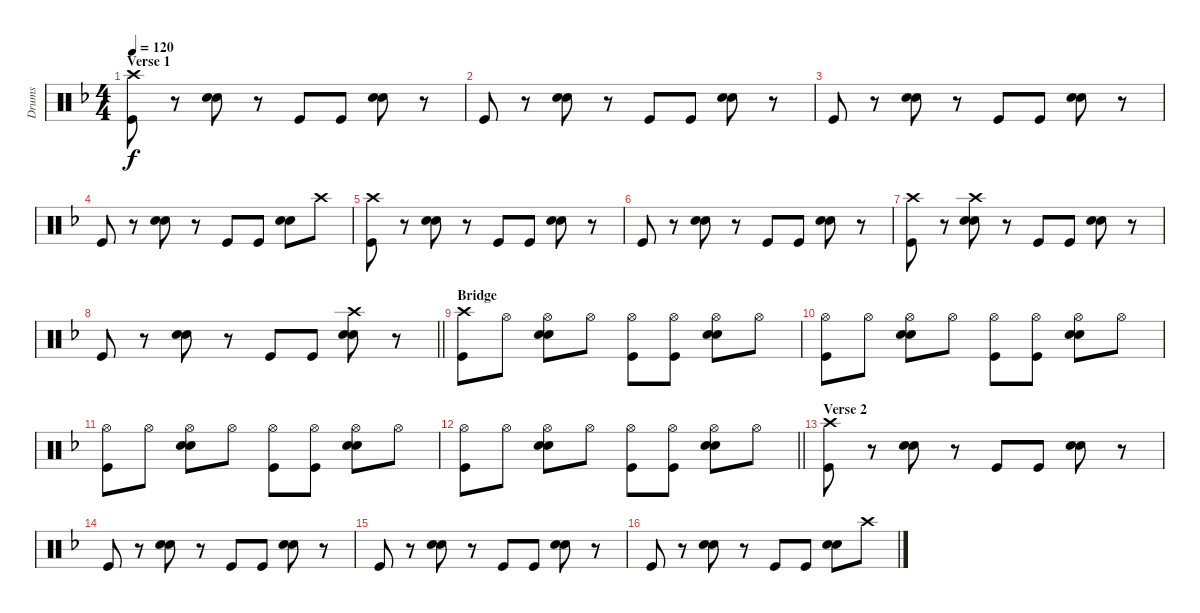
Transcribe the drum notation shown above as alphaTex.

\track ("Drums" "Drums") {instrument percussion}
\staff {score}
\articulation defaults
\ts (4 4)
\section ("" "Verse 1")
\tempo 120
\clef neutral
\ks f
("Crash high (hit)" "Kick (hit)").8{dy f volume 10} r.8 ("Electric Snare (hit)" "Snare (hit) 2").8 r.8 "Kick (hit)".8 "Kick (hit)".8 ("Electric Snare (hit)" "Snare (hit) 2").8 r.8 |
"Kick (hit)".8 r.8 ("Electric Snare (hit)" "Snare (hit) 2").8 r.8 "Kick (hit)".8 "Kick (hit)".8 ("Electric Snare (hit)" "Snare (hit) 2").8 r.8 |
"Kick (hit)".8 r.8 ("Electric Snare (hit)" "Snare (hit) 2").8 r.8 "Kick (hit)".8 "Kick (hit)".8 ("Electric Snare (hit)" "Snare (hit) 2").8 r.8 |
"Kick (hit)".8 r.8 ("Electric Snare (hit)" "Snare (hit) 2").8 r.8 "Kick (hit)".8 "Kick (hit)".8 ("Electric Snare (hit)" "Snare (hit) 2").8 "Crash high (hit)".8 |
("Crash high (hit)" "Kick (hit)").8 r.8 ("Electric Snare (hit)" "Snare (hit) 2").8 r.8 "Kick (hit)".8 "Kick (hit)".8 ("Electric Snare (hit)" "Snare (hit) 2").8 r.8 |
"Kick (hit)".8 r.8 ("Electric Snare (hit)" "Snare (hit) 2").8 r.8 "Kick (hit)".8 "Kick (hit)".8 ("Electric Snare (hit)" "Snare (hit) 2").8 r.8 |
("Crash high (hit)" "Kick (hit)").8 r.8 ("Crash high (hit)" "Electric Snare (hit)" "Snare (hit) 2").8 r.8 "Kick (hit)".8 "Kick (hit)".8 ("Electric Snare (hit)" "Snare (hit) 2").8 r.8 |
\barLineRight lightlight "Kick (hit)".8
r.8 ("Electric Snare (hit)" "Snare (hit) 2").8 r.8 "Kick (hit)".8 "Kick (hit)".8 ("Crash high (hit)" "Electric Snare (hit)" "Snare (hit) 2").8 r.8 |
\section ("" "Bridge")
("Crash high (hit)" "Kick (hit)").8{volume 16} "Hi-Hat (open)".8 ("Hi-Hat (open)" "Electric Snare (hit)" "Snare (hit) 2").8 "Hi-Hat (open)".8 ("Hi-Hat (open)" "Kick (hit)").8 ("Hi-Hat (open)" "Kick (hit)").8 ("Hi-Hat (open)" "Electric Snare (hit)" "Snare (hit) 2").8 "Hi-Hat (open)".8 |
("Hi-Hat (open)" "Kick (hit)").8 "Hi-Hat (open)".8 ("Hi-Hat (open)" "Electric Snare (hit)" "Snare (hit) 2").8 "Hi-Hat (open)".8 ("Hi-Hat (open)" "Kick (hit)").8 ("Hi-Hat (open)" "Kick (hit)").8 ("Hi-Hat (open)" "Electric Snare (hit)" "Snare (hit) 2").8 "Hi-Hat (open)".8 |
("Hi-Hat (open)" "Kick (hit)").8 "Hi-Hat (open)".8 ("Hi-Hat (open)" "Electric Snare (hit)" "Snare (hit) 2").8 "Hi-Hat (open)".8 ("Hi-Hat (open)" "Kick (hit)").8 ("Hi-Hat (open)" "Kick (hit)").8 ("Hi-Hat (open)" "Electric Snare (hit)" "Snare (hit) 2").8 "Hi-Hat (open)".8 |
\barLineRight lightlight
("Hi-Hat (open)" "Kick (hit)").8 "Hi-Hat (open)".8 ("Hi-Hat (open)" "Electric Snare (hit)" "Snare (hit) 2").8 "Hi-Hat (open)".8 ("Hi-Hat (open)" "Kick (hit)").8 ("Hi-Hat (open)" "Kick (hit)").8 ("Hi-Hat (open)" "Electric Snare (hit)" "Snare (hit) 2").8 "Hi-Hat (open)".8 |
\section ("" "Verse 2")
("Crash high (hit)" "Kick (hit)").8{volume 10} r.8 ("Electric Snare (hit)" "Snare (hit) 2").8 r.8 "Kick (hit)".8 "Kick (hit)".8 ("Electric Snare (hit)" "Snare (hit) 2").8 r.8 |
"Kick (hit)".8 r.8 ("Electric Snare (hit)" "Snare (hit) 2").8 r.8 "Kick (hit)".8 "Kick (hit)".8 ("Electric Snare (hit)" "Snare (hit) 2").8 r.8 |
"Kick (hit)".8 r.8 ("Electric Snare (hit)" "Snare (hit) 2").8 r.8 "Kick (hit)".8 "Kick (hit)".8 ("Electric Snare (hit)" "Snare (hit) 2").8 r.8 |
"Kick (hit)".8 r.8 ("Electric Snare (hit)" "Snare (hit) 2").8 r.8 "Kick (hit)".8 "Kick (hit)".8 ("Electric Snare (hit)" "Snare (hit) 2").8 "Crash high (hit)".8
